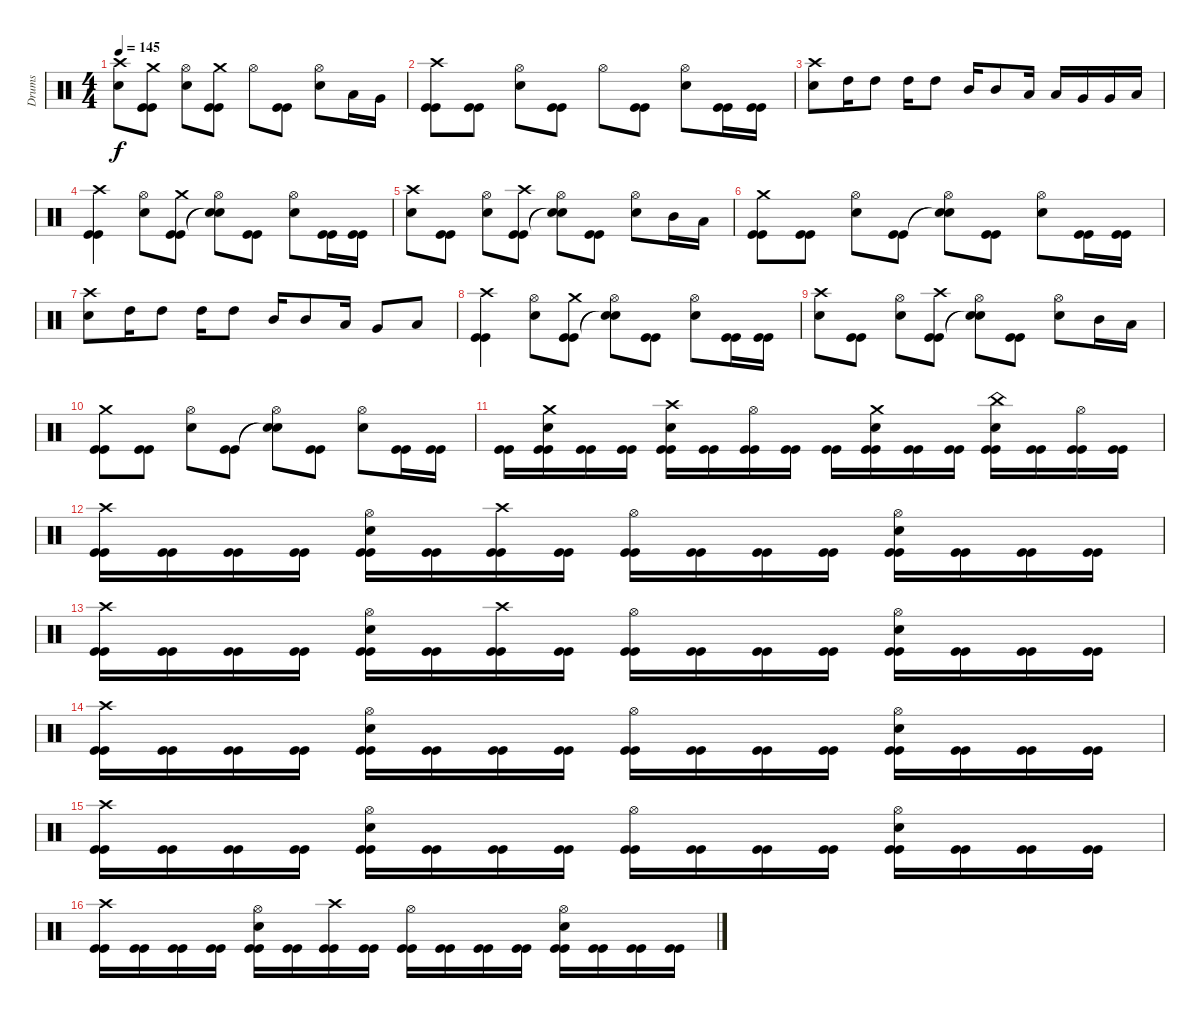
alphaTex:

\track ("Drums" "Drums") {instrument percussion}
\staff {score}
\articulation defaults
\ts (4 4)
\tempo 145
\clef neutral
\ks c
("Snare (hit) 2" "Crash high (hit)").8{dy f} ("Kick (hit)" "Kick (hit)" "Crash medium (hit)").8 ("Snare (hit) 2" "Hi-Hat (open)").8 ("Kick (hit)" "Kick (hit)" "Crash medium (hit)").8 "Hi-Hat (open)".8 ("Kick (hit)" "Kick (hit)").8 ("Snare (hit) 2" "Hi-Hat (open)").8 "Low Tom (hit)".16 "Very Low Tom (hit)".16 |
("Kick (hit)" "Kick (hit)" "Crash high (hit)").8 ("Kick (hit)" "Kick (hit)").8 ("Snare (hit) 2" "Hi-Hat (open)").8 ("Kick (hit)" "Kick (hit)").8 "Hi-Hat (open)".8 ("Kick (hit)" "Kick (hit)").8 ("Snare (hit) 2" "Hi-Hat (open)").8 ("Kick (hit)" "Kick (hit)").16 ("Kick (hit)" "Kick (hit)").16 |
("Snare (hit) 2" "Crash high (hit)").8 "High Tom (hit)".16 "High Tom (hit)".8 "High Tom (hit)".16 "High Tom (hit)".8 "Mid Tom (hit)".16 "Mid Tom (hit)".8 "Low Tom (hit)".16 "Low Tom (hit)".16 "Very Low Tom (hit)".16 "Very Low Tom (hit)".16 "Low Floor Tom (hit)".16 |
("Kick (hit)" "Kick (hit)" "Crash high (hit)").4 ("Snare (hit) 2" "Hi-Hat (open)").8 ("Kick (hit)" "Kick (hit)" "Crash medium (hit)").8 ("Snare (hit)"{t} "Snare (hit)"{t} "Hi-Hat (open)").8 ("Kick (hit)" "Kick (hit)").8 ("Snare (hit) 2" "Hi-Hat (open)").8 ("Kick (hit)" "Kick (hit)").16 ("Kick (hit)" "Kick (hit)").16 |
("Snare (hit) 2" "Crash high (hit)").8 ("Kick (hit)" "Kick (hit)").8 ("Snare (hit) 2" "Hi-Hat (open)").8 ("Kick (hit)" "Kick (hit)" "Crash high (hit)").8 ("Snare (hit)"{t} "Snare (hit)"{t} "Hi-Hat (open)").8 ("Kick (hit)" "Kick (hit)").8 ("Snare (hit) 2" "Hi-Hat (open)").8 "Mid Tom (hit)".16 "Low Tom (hit)".16 |
("Kick (hit)" "Kick (hit)" "Crash medium (hit)").8 ("Kick (hit)" "Kick (hit)").8 ("Snare (hit) 2" "Hi-Hat (open)").8 ("Kick (hit)" "Kick (hit)").8 ("Snare (hit)"{t} "Snare (hit)"{t} "Hi-Hat (open)").8 ("Kick (hit)" "Kick (hit)").8 ("Snare (hit) 2" "Hi-Hat (open)").8 ("Kick (hit)" "Kick (hit)").16 ("Kick (hit)" "Kick (hit)").16 |
("Snare (hit) 2" "Crash high (hit)").8 "High Tom (hit)".16 "High Tom (hit)".8 "High Tom (hit)".16 "High Tom (hit)".8 "Mid Tom (hit)".16 "Mid Tom (hit)".8 "Low Tom (hit)".16 "Very Low Tom (hit)".8 "Low Floor Tom (hit)".8 |
("Kick (hit)" "Kick (hit)" "Crash high (hit)").4 ("Snare (hit) 2" "Hi-Hat (open)").8 ("Kick (hit)" "Kick (hit)" "Crash medium (hit)").8 ("Snare (hit)"{t} "Snare (hit)"{t} "Hi-Hat (open)").8 ("Kick (hit)" "Kick (hit)").8 ("Snare (hit) 2" "Hi-Hat (open)").8 ("Kick (hit)" "Kick (hit)").16 ("Kick (hit)" "Kick (hit)").16 |
("Snare (hit) 2" "Crash high (hit)").8 ("Kick (hit)" "Kick (hit)").8 ("Snare (hit) 2" "Hi-Hat (open)").8 ("Kick (hit)" "Kick (hit)" "Crash high (hit)").8 ("Snare (hit)"{t} "Snare (hit)"{t} "Hi-Hat (open)").8 ("Kick (hit)" "Kick (hit)").8 ("Snare (hit) 2" "Hi-Hat (open)").8 "Mid Tom (hit)".16 "Low Tom (hit)".16 |
("Kick (hit)" "Kick (hit)" "Crash medium (hit)").8 ("Kick (hit)" "Kick (hit)").8 ("Snare (hit) 2" "Hi-Hat (open)").8 ("Kick (hit)" "Kick (hit)").8 ("Snare (hit)"{t} "Snare (hit)"{t} "Hi-Hat (open)").8 ("Kick (hit)" "Kick (hit)").8 ("Snare (hit) 2" "Hi-Hat (open)").8 ("Kick (hit)" "Kick (hit)").16 ("Kick (hit)" "Kick (hit)").16 |
("Kick (hit)" "Kick (hit)").16 ("Kick (hit)" "Kick (hit)" "Snare (hit) 2" "Crash medium (hit)").16 ("Kick (hit)" "Kick (hit)").16 ("Kick (hit)" "Kick (hit)").16 ("Kick (hit)" "Kick (hit)" "Snare (hit) 2" "Crash high (hit)").16 ("Kick (hit)" "Kick (hit)").16 ("Kick (hit)" "Kick (hit)" "Hi-Hat (open)").16 ("Kick (hit)" "Kick (hit)").16 ("Kick (hit)" "Kick (hit)").16 ("Kick (hit)" "Kick (hit)" "Snare (hit) 2" "Crash medium (hit)").16 ("Kick (hit)" "Kick (hit)").16 ("Kick (hit)" "Kick (hit)").16 ("Kick (hit)" "Kick (hit)" "Snare (hit) 2" "China (hit)").16 ("Kick (hit)" "Kick (hit)").16 ("Kick (hit)" "Kick (hit)" "Hi-Hat (open)").16 ("Kick (hit)" "Kick (hit)").16 |
("Kick (hit)" "Kick (hit)" "Crash high (hit)").16 ("Kick (hit)" "Kick (hit)").16 ("Kick (hit)" "Kick (hit)").16 ("Kick (hit)" "Kick (hit)").16 ("Kick (hit)" "Kick (hit)" "Snare (hit) 2" "Hi-Hat (open)").16 ("Kick (hit)" "Kick (hit)").16 ("Kick (hit)" "Kick (hit)" "Crash high (hit)").16 ("Kick (hit)" "Kick (hit)").16 ("Kick (hit)" "Kick (hit)" "Hi-Hat (open)").16 ("Kick (hit)" "Kick (hit)").16 ("Kick (hit)" "Kick (hit)").16 ("Kick (hit)" "Kick (hit)").16 ("Kick (hit)" "Kick (hit)" "Snare (hit) 2" "Hi-Hat (open)").16 ("Kick (hit)" "Kick (hit)").16 ("Kick (hit)" "Kick (hit)").16 ("Kick (hit)" "Kick (hit)").16 |
("Kick (hit)" "Kick (hit)" "Crash high (hit)").16 ("Kick (hit)" "Kick (hit)").16 ("Kick (hit)" "Kick (hit)").16 ("Kick (hit)" "Kick (hit)").16 ("Kick (hit)" "Kick (hit)" "Snare (hit) 2" "Hi-Hat (open)").16 ("Kick (hit)" "Kick (hit)").16 ("Kick (hit)" "Kick (hit)" "Crash high (hit)").16 ("Kick (hit)" "Kick (hit)").16 ("Kick (hit)" "Kick (hit)" "Hi-Hat (open)").16 ("Kick (hit)" "Kick (hit)").16 ("Kick (hit)" "Kick (hit)").16 ("Kick (hit)" "Kick (hit)").16 ("Kick (hit)" "Kick (hit)" "Snare (hit) 2" "Hi-Hat (open)").16 ("Kick (hit)" "Kick (hit)").16 ("Kick (hit)" "Kick (hit)").16 ("Kick (hit)" "Kick (hit)").16 |
("Kick (hit)" "Kick (hit)" "Crash high (hit)").16 ("Kick (hit)" "Kick (hit)").16 ("Kick (hit)" "Kick (hit)").16 ("Kick (hit)" "Kick (hit)").16 ("Kick (hit)" "Kick (hit)" "Snare (hit) 2" "Hi-Hat (open)").16 ("Kick (hit)" "Kick (hit)").16 ("Kick (hit)" "Kick (hit)").16 ("Kick (hit)" "Kick (hit)").16 ("Kick (hit)" "Kick (hit)" "Hi-Hat (open)").16 ("Kick (hit)" "Kick (hit)").16 ("Kick (hit)" "Kick (hit)").16 ("Kick (hit)" "Kick (hit)").16 ("Kick (hit)" "Kick (hit)" "Snare (hit) 2" "Hi-Hat (open)").16 ("Kick (hit)" "Kick (hit)").16 ("Kick (hit)" "Kick (hit)").16 ("Kick (hit)" "Kick (hit)").16 |
("Kick (hit)" "Kick (hit)" "Crash high (hit)").16 ("Kick (hit)" "Kick (hit)").16 ("Kick (hit)" "Kick (hit)").16 ("Kick (hit)" "Kick (hit)").16 ("Kick (hit)" "Kick (hit)" "Snare (hit) 2" "Hi-Hat (open)").16 ("Kick (hit)" "Kick (hit)").16 ("Kick (hit)" "Kick (hit)").16 ("Kick (hit)" "Kick (hit)").16 ("Kick (hit)" "Kick (hit)" "Hi-Hat (open)").16 ("Kick (hit)" "Kick (hit)").16 ("Kick (hit)" "Kick (hit)").16 ("Kick (hit)" "Kick (hit)").16 ("Kick (hit)" "Kick (hit)" "Snare (hit) 2" "Hi-Hat (open)").16 ("Kick (hit)" "Kick (hit)").16 ("Kick (hit)" "Kick (hit)").16 ("Kick (hit)" "Kick (hit)").16 |
("Kick (hit)" "Kick (hit)" "Crash high (hit)").16 ("Kick (hit)" "Kick (hit)").16 ("Kick (hit)" "Kick (hit)").16 ("Kick (hit)" "Kick (hit)").16 ("Kick (hit)" "Kick (hit)" "Snare (hit) 2" "Hi-Hat (open)").16 ("Kick (hit)" "Kick (hit)").16 ("Kick (hit)" "Kick (hit)" "Crash high (hit)").16 ("Kick (hit)" "Kick (hit)").16 ("Kick (hit)" "Kick (hit)" "Hi-Hat (open)").16 ("Kick (hit)" "Kick (hit)").16 ("Kick (hit)" "Kick (hit)").16 ("Kick (hit)" "Kick (hit)").16 ("Kick (hit)" "Kick (hit)" "Snare (hit) 2" "Hi-Hat (open)").16 ("Kick (hit)" "Kick (hit)").16 ("Kick (hit)" "Kick (hit)").16 ("Kick (hit)" "Kick (hit)").16
